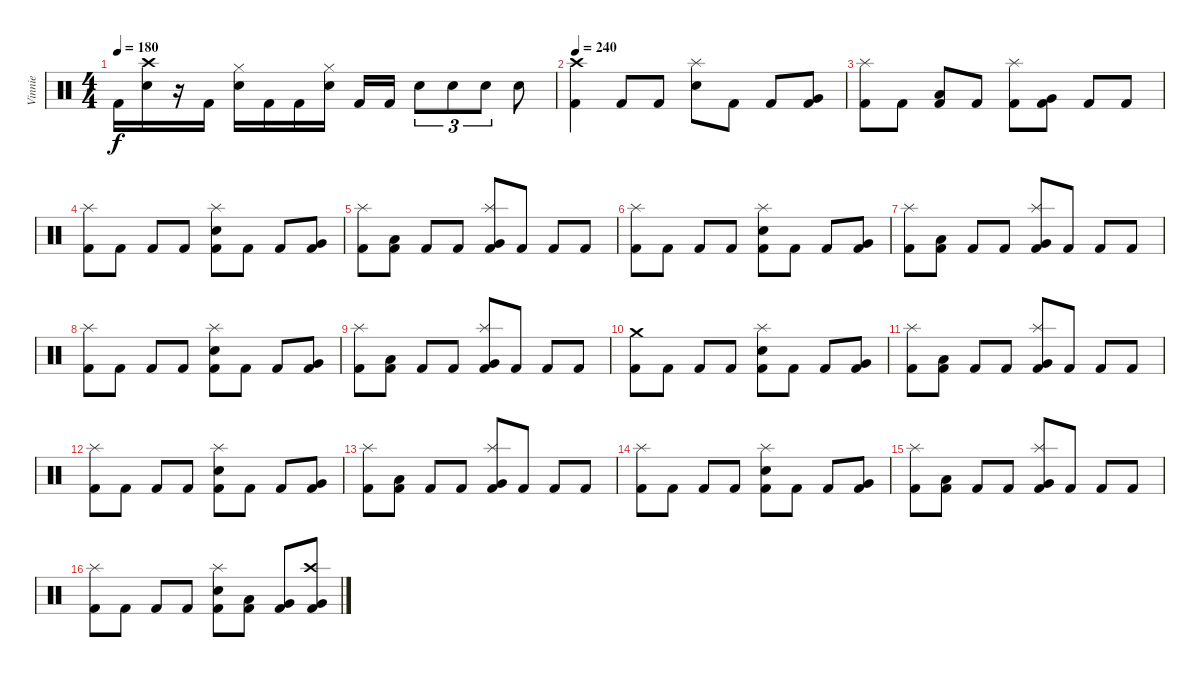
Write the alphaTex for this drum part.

\track ("Vinnie" "Vinnie") {instrument percussion}
\staff {score}
\articulation defaults
\ts (4 4)
\tempo 180
\clef neutral
\ks c "Kick (hit) 2".16{dy f}
("Crash high (hit)" "Electric Snare (hit)").16 r.16 "Kick (hit) 2".16 ("Hi-Hat (closed)" "Electric Snare (hit)").16 "Kick (hit) 2".16 "Kick (hit) 2".16 ("Hi-Hat (closed)" "Electric Snare (hit)").16 "Kick (hit) 2".16 "Kick (hit) 2".16 "Electric Snare (hit)".8{tu (3 2)} "Electric Snare (hit)".8{tu (3 2)} "Electric Snare (hit)".8{tu (3 2)} "Electric Snare (hit)".8 |
\tempo 240
("Crash high (hit)" "Kick (hit) 2").4 "Kick (hit) 2".8 "Kick (hit) 2".8 ("Splash (hit)" "Electric Snare (hit)").8 "Kick (hit) 2".8 "Kick (hit) 2".8 ("Very Low Tom (hit)" "Kick (hit) 2").8 |
("Splash (hit)" "Kick (hit) 2").8 "Kick (hit) 2".8 ("Low Tom (hit)" "Kick (hit) 2").8 "Kick (hit) 2".8 ("Splash (hit)" "Kick (hit) 2").8 ("Very Low Tom (hit)" "Kick (hit) 2").8 "Kick (hit) 2".8 "Kick (hit) 2".8 |
("Splash (hit)" "Kick (hit) 2").8 "Kick (hit) 2".8 "Kick (hit) 2".8 "Kick (hit) 2".8 ("Splash (hit)" "Electric Snare (hit)" "Kick (hit) 2").8 "Kick (hit) 2".8 "Kick (hit) 2".8 ("Very Low Tom (hit)" "Kick (hit) 2").8 |
("Splash (hit)" "Kick (hit) 2").8 ("Low Tom (hit)" "Kick (hit) 2").8 "Kick (hit) 2".8 "Kick (hit) 2".8 ("Splash (hit)" "Very Low Tom (hit)" "Kick (hit) 2").8 "Kick (hit) 2".8 "Kick (hit) 2".8 "Kick (hit) 2".8 |
("Splash (hit)" "Kick (hit) 2").8 "Kick (hit) 2".8 "Kick (hit) 2".8 "Kick (hit) 2".8 ("Splash (hit)" "Electric Snare (hit)" "Kick (hit) 2").8 "Kick (hit) 2".8 "Kick (hit) 2".8 ("Very Low Tom (hit)" "Kick (hit) 2").8 |
("Splash (hit)" "Kick (hit) 2").8 ("Low Tom (hit)" "Kick (hit) 2").8 "Kick (hit) 2".8 "Kick (hit) 2".8 ("Splash (hit)" "Very Low Tom (hit)" "Kick (hit) 2").8 "Kick (hit) 2".8 "Kick (hit) 2".8 "Kick (hit) 2".8 |
("Splash (hit)" "Kick (hit) 2").8 "Kick (hit) 2".8 "Kick (hit) 2".8 "Kick (hit) 2".8 ("Splash (hit)" "Electric Snare (hit)" "Kick (hit) 2").8 "Kick (hit) 2".8 "Kick (hit) 2".8 ("Very Low Tom (hit)" "Kick (hit) 2").8 |
("Splash (hit)" "Kick (hit) 2").8 ("Low Tom (hit)" "Kick (hit) 2").8 "Kick (hit) 2".8 "Kick (hit) 2".8 ("Splash (hit)" "Very Low Tom (hit)" "Kick (hit) 2").8 "Kick (hit) 2".8 "Kick (hit) 2".8 "Kick (hit) 2".8 |
("Crash medium (hit)" "Kick (hit) 2").8 "Kick (hit) 2".8 "Kick (hit) 2".8 "Kick (hit) 2".8 ("Splash (hit)" "Electric Snare (hit)" "Kick (hit) 2").8 "Kick (hit) 2".8 "Kick (hit) 2".8 ("Very Low Tom (hit)" "Kick (hit) 2").8 |
("Splash (hit)" "Kick (hit) 2").8 ("Low Tom (hit)" "Kick (hit) 2").8 "Kick (hit) 2".8 "Kick (hit) 2".8 ("Splash (hit)" "Very Low Tom (hit)" "Kick (hit) 2").8 "Kick (hit) 2".8 "Kick (hit) 2".8 "Kick (hit) 2".8 |
("Splash (hit)" "Kick (hit) 2").8 "Kick (hit) 2".8 "Kick (hit) 2".8 "Kick (hit) 2".8 ("Splash (hit)" "Electric Snare (hit)" "Kick (hit) 2").8 "Kick (hit) 2".8 "Kick (hit) 2".8 ("Very Low Tom (hit)" "Kick (hit) 2").8 |
("Splash (hit)" "Kick (hit) 2").8 ("Low Tom (hit)" "Kick (hit) 2").8 "Kick (hit) 2".8 "Kick (hit) 2".8 ("Splash (hit)" "Very Low Tom (hit)" "Kick (hit) 2").8 "Kick (hit) 2".8 "Kick (hit) 2".8 "Kick (hit) 2".8 |
("Splash (hit)" "Kick (hit) 2").8 "Kick (hit) 2".8 "Kick (hit) 2".8 "Kick (hit) 2".8 ("Splash (hit)" "Electric Snare (hit)" "Kick (hit) 2").8 "Kick (hit) 2".8 "Kick (hit) 2".8 ("Very Low Tom (hit)" "Kick (hit) 2").8 |
("Splash (hit)" "Kick (hit) 2").8 ("Low Tom (hit)" "Kick (hit) 2").8 "Kick (hit) 2".8 "Kick (hit) 2".8 ("Splash (hit)" "Very Low Tom (hit)" "Kick (hit) 2").8 "Kick (hit) 2".8 "Kick (hit) 2".8 "Kick (hit) 2".8 |
("Splash (hit)" "Kick (hit) 2").8 "Kick (hit) 2".8 "Kick (hit) 2".8 "Kick (hit) 2".8 ("Splash (hit)" "Electric Snare (hit)" "Kick (hit) 2").8 ("Low Tom (hit)" "Kick (hit) 2").8 ("Very Low Tom (hit)" "Kick (hit) 2").8 ("Crash high (hit)" "Very Low Tom (hit)" "Kick (hit) 2").8
